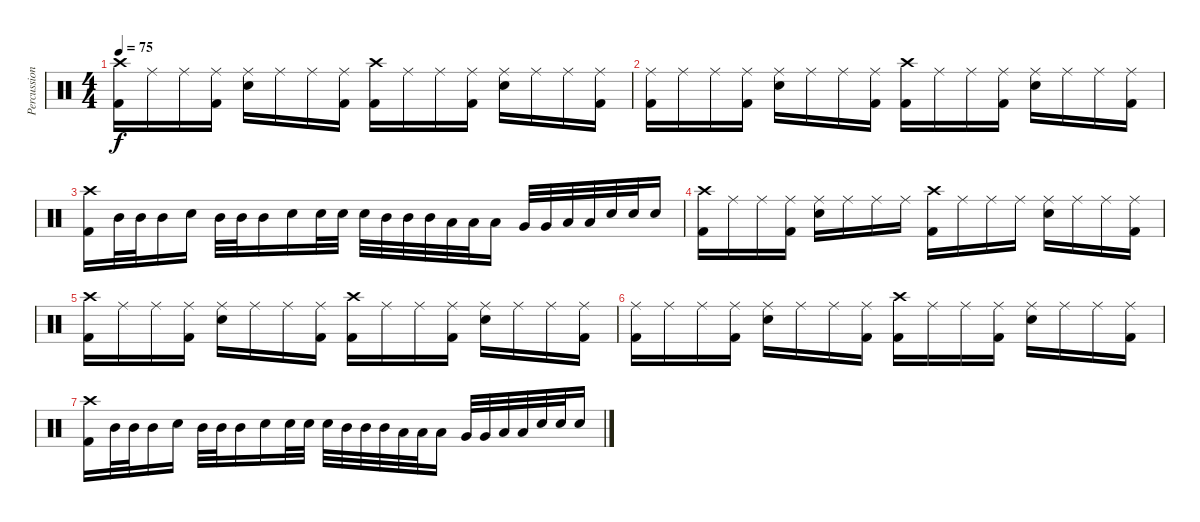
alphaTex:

\track ("Percussions" "Percussion") {instrument percussion}
\staff {score}
\articulation defaults
\ts (4 4)
\tempo 75
\clef neutral
\ks c
("Crash high (hit)" "Kick (hit) 2").16{dy f} "Ride (middle)".16 "Ride (middle)".16 ("Ride (middle)" "Kick (hit) 2").16 ("Ride (middle)" "Electric Snare (hit)").16 "Ride (middle)".16 "Ride (middle)".16 ("Ride (middle)" "Kick (hit) 2").16 ("Crash high (hit)" "Kick (hit) 2").16 "Ride (middle)".16 "Ride (middle)".16 ("Ride (middle)" "Kick (hit) 2").16 ("Ride (middle)" "Electric Snare (hit)").16 "Ride (middle)".16 "Ride (middle)".16 ("Ride (middle)" "Kick (hit) 2").16 |
("Ride (middle)" "Kick (hit) 2").16 "Ride (middle)".16 "Ride (middle)".16 ("Ride (middle)" "Kick (hit) 2").16 ("Ride (middle)" "Electric Snare (hit)").16 "Ride (middle)".16 "Ride (middle)".16 ("Ride (middle)" "Kick (hit) 2").16 ("Crash high (hit)" "Kick (hit) 2").16 "Ride (middle)".16 "Ride (middle)".16 ("Ride (middle)" "Kick (hit) 2").16 ("Ride (middle)" "Electric Snare (hit)").16 "Ride (middle)".16 "Ride (middle)".16 ("Ride (middle)" "Kick (hit) 2").16 |
("Crash high (hit)" "Kick (hit) 2").16 "Mid Tom (hit)".32 "Mid Tom (hit)".32 "Mid Tom (hit)".16 "Electric Snare (hit)".16 "Mid Tom (hit)".32 "Mid Tom (hit)".32 "Mid Tom (hit)".16 "Electric Snare (hit)".16 "Electric Snare (hit)".32 "Electric Snare (hit)".32 "Electric Snare (hit)".32 "Mid Tom (hit)".32 "Mid Tom (hit)".32 "Mid Tom (hit)".32 "Low Tom (hit)".32 "Low Tom (hit)".32 "Low Tom (hit)".16 "Very Low Tom (hit)".32 "Very Low Tom (hit)".32 "Low Floor Tom (hit)".32 "Low Floor Tom (hit)".32 "Electric Snare (hit)".32 "Electric Snare (hit)".32 "Electric Snare (hit)".16 |
("Crash high (hit)" "Kick (hit) 2").16 "Ride (middle)".16 "Ride (middle)".16 ("Ride (middle)" "Kick (hit) 2").16 ("Ride (middle)" "Electric Snare (hit)").16 "Ride (middle)".16 "Ride (middle)".16 "Ride (middle)".16 ("Crash high (hit)" "Kick (hit) 2").16 "Ride (middle)".16 "Ride (middle)".16 "Ride (middle)".16 ("Ride (middle)" "Electric Snare (hit)").16 "Ride (middle)".16 "Ride (middle)".16 ("Ride (middle)" "Kick (hit) 2").16 |
("Crash high (hit)" "Kick (hit) 2").16 "Ride (middle)".16 "Ride (middle)".16 ("Ride (middle)" "Kick (hit) 2").16 ("Ride (middle)" "Electric Snare (hit)").16 "Ride (middle)".16 "Ride (middle)".16 ("Ride (middle)" "Kick (hit) 2").16 ("Crash high (hit)" "Kick (hit) 2").16 "Ride (middle)".16 "Ride (middle)".16 ("Ride (middle)" "Kick (hit) 2").16 ("Ride (middle)" "Electric Snare (hit)").16 "Ride (middle)".16 "Ride (middle)".16 ("Ride (middle)" "Kick (hit) 2").16 |
("Ride (middle)" "Kick (hit) 2").16 "Ride (middle)".16 "Ride (middle)".16 ("Ride (middle)" "Kick (hit) 2").16 ("Ride (middle)" "Electric Snare (hit)").16 "Ride (middle)".16 "Ride (middle)".16 ("Ride (middle)" "Kick (hit) 2").16 ("Crash high (hit)" "Kick (hit) 2").16 "Ride (middle)".16 "Ride (middle)".16 ("Ride (middle)" "Kick (hit) 2").16 ("Ride (middle)" "Electric Snare (hit)").16 "Ride (middle)".16 "Ride (middle)".16 ("Ride (middle)" "Kick (hit) 2").16 |
("Crash high (hit)" "Kick (hit) 2").16 "Mid Tom (hit)".32 "Mid Tom (hit)".32 "Mid Tom (hit)".16 "Electric Snare (hit)".16 "Mid Tom (hit)".32 "Mid Tom (hit)".32 "Mid Tom (hit)".16 "Electric Snare (hit)".16 "Electric Snare (hit)".32 "Electric Snare (hit)".32 "Electric Snare (hit)".32 "Mid Tom (hit)".32 "Mid Tom (hit)".32 "Mid Tom (hit)".32 "Low Tom (hit)".32 "Low Tom (hit)".32 "Low Tom (hit)".16 "Very Low Tom (hit)".32 "Very Low Tom (hit)".32 "Low Floor Tom (hit)".32 "Low Floor Tom (hit)".32 "Electric Snare (hit)".32 "Electric Snare (hit)".32 "Electric Snare (hit)".16
